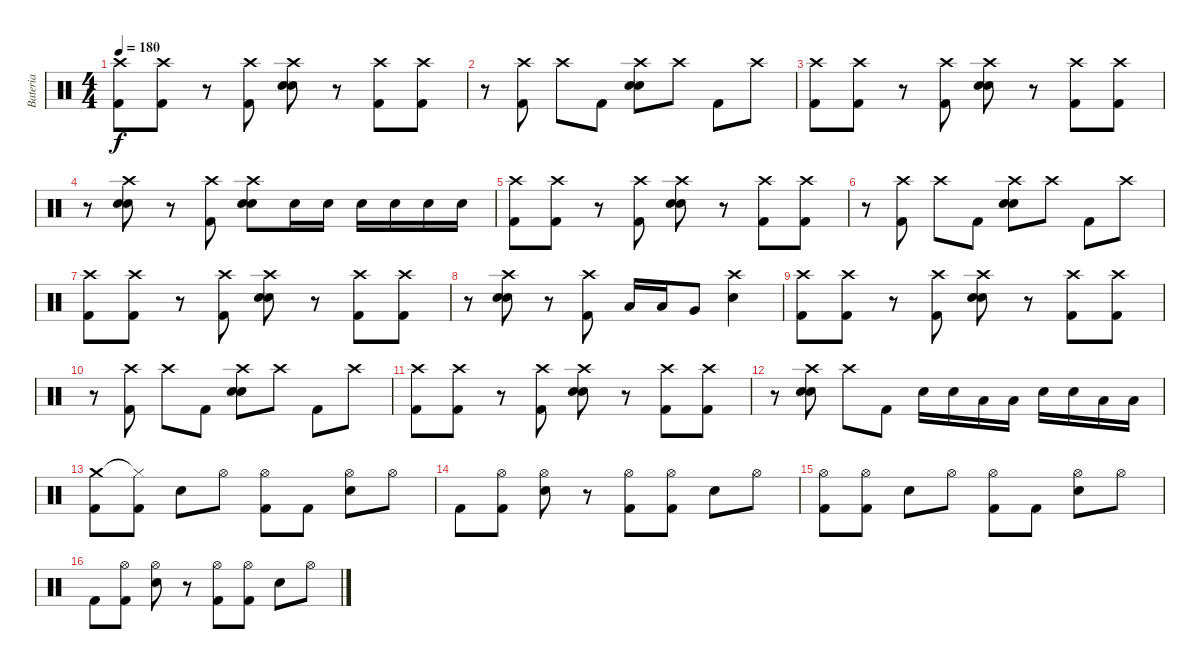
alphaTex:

\track ("Bateria" "Bateria") {instrument percussion}
\staff {score}
\articulation defaults
\ts (4 4)
\tempo 180
\clef neutral
\ks c
("Crash high (hit)" "Kick (hit) 2").8{dy f} ("Crash high (hit)" "Kick (hit) 2").8 r.8 ("Crash high (hit)" "Kick (hit) 2").8 ("Crash high (hit)" "Snare (hit) 2" "Electric Snare (hit)").8 r.8 ("Crash high (hit)" "Kick (hit) 2").8 ("Crash high (hit)" "Kick (hit) 2").8 |
r.8 ("Crash high (hit)" "Kick (hit) 2").8 "Crash high (hit)".8 "Kick (hit) 2".8 ("Crash high (hit)" "Snare (hit) 2" "Electric Snare (hit)").8 "Crash high (hit)".8 "Kick (hit) 2".8 "Crash high (hit)".8 |
("Crash high (hit)" "Kick (hit) 2").8 ("Crash high (hit)" "Kick (hit) 2").8 r.8 ("Crash high (hit)" "Kick (hit) 2").8 ("Crash high (hit)" "Snare (hit) 2" "Electric Snare (hit)").8 r.8 ("Crash high (hit)" "Kick (hit) 2").8 ("Crash high (hit)" "Kick (hit) 2").8 |
r.8 ("Crash high (hit)" "Snare (hit) 2" "Electric Snare (hit)").8 r.8 ("Crash high (hit)" "Kick (hit) 2").8 ("Crash high (hit)" "Snare (hit) 2" "Electric Snare (hit)").8 "Electric Snare (hit)".16 "Electric Snare (hit)".16 "Electric Snare (hit)".16 "Electric Snare (hit)".16 "Electric Snare (hit)".16 "Electric Snare (hit)".16 |
("Crash high (hit)" "Kick (hit) 2").8 ("Crash high (hit)" "Kick (hit) 2").8 r.8 ("Crash high (hit)" "Kick (hit) 2").8 ("Crash high (hit)" "Snare (hit) 2" "Electric Snare (hit)").8 r.8 ("Crash high (hit)" "Kick (hit) 2").8 ("Crash high (hit)" "Kick (hit) 2").8 |
r.8 ("Crash high (hit)" "Kick (hit) 2").8 "Crash high (hit)".8 "Kick (hit) 2".8 ("Crash high (hit)" "Snare (hit) 2" "Electric Snare (hit)").8 "Crash high (hit)".8 "Kick (hit) 2".8 "Crash high (hit)".8 |
("Crash high (hit)" "Kick (hit) 2").8 ("Crash high (hit)" "Kick (hit) 2").8 r.8 ("Crash high (hit)" "Kick (hit) 2").8 ("Crash high (hit)" "Snare (hit) 2" "Electric Snare (hit)").8 r.8 ("Crash high (hit)" "Kick (hit) 2").8 ("Crash high (hit)" "Kick (hit) 2").8 |
r.8 ("Crash high (hit)" "Snare (hit) 2" "Electric Snare (hit)").8 r.8 ("Crash high (hit)" "Kick (hit) 2").8 "Low Tom (hit)".16 "Low Tom (hit)".16 "Very Low Tom (hit)".8 ("Crash high (hit)" "Electric Snare (hit)").4 |
("Crash high (hit)" "Kick (hit) 2").8 ("Crash high (hit)" "Kick (hit) 2").8 r.8 ("Crash high (hit)" "Kick (hit) 2").8 ("Crash high (hit)" "Snare (hit) 2" "Electric Snare (hit)").8 r.8 ("Crash high (hit)" "Kick (hit) 2").8 ("Crash high (hit)" "Kick (hit) 2").8 |
r.8 ("Crash high (hit)" "Kick (hit) 2").8 "Crash high (hit)".8 "Kick (hit) 2".8 ("Crash high (hit)" "Snare (hit) 2" "Electric Snare (hit)").8 "Crash high (hit)".8 "Kick (hit) 2".8 "Crash high (hit)".8 |
("Crash high (hit)" "Kick (hit) 2").8 ("Crash high (hit)" "Kick (hit) 2").8 r.8 ("Crash high (hit)" "Kick (hit) 2").8 ("Crash high (hit)" "Snare (hit) 2" "Electric Snare (hit)").8 r.8 ("Crash high (hit)" "Kick (hit) 2").8 ("Crash high (hit)" "Kick (hit) 2").8 |
r.8 ("Crash high (hit)" "Snare (hit) 2" "Electric Snare (hit)").8 "Crash high (hit)".8 "Kick (hit) 2".8 "Electric Snare (hit)".16 "Electric Snare (hit)".16 "Low Tom (hit)".16 "Low Tom (hit)".16 "Electric Snare (hit)".16 "Electric Snare (hit)".16 "Low Tom (hit)".16 "Low Tom (hit)".16 |
("Crash medium (hit)" "Kick (hit) 2").8 ("Hi-Hat (closed)"{t} "Kick (hit) 2").8 "Electric Snare (hit)".8 "Hi-Hat (open)".8 ("Hi-Hat (open)" "Kick (hit) 2").8 "Kick (hit) 2".8 ("Hi-Hat (open)" "Electric Snare (hit)").8 "Hi-Hat (open)".8 |
"Kick (hit) 2".8 ("Hi-Hat (open)" "Kick (hit) 2").8 ("Hi-Hat (open)" "Electric Snare (hit)").8 r.8 ("Hi-Hat (open)" "Kick (hit) 2").8 ("Hi-Hat (open)" "Kick (hit) 2").8 "Electric Snare (hit)".8 "Hi-Hat (open)".8 |
("Hi-Hat (open)" "Kick (hit) 2").8 ("Hi-Hat (open)" "Kick (hit) 2").8 "Electric Snare (hit)".8 "Hi-Hat (open)".8 ("Hi-Hat (open)" "Kick (hit) 2").8 "Kick (hit) 2".8 ("Hi-Hat (open)" "Electric Snare (hit)").8 "Hi-Hat (open)".8 |
"Kick (hit) 2".8 ("Hi-Hat (open)" "Kick (hit) 2").8 ("Hi-Hat (open)" "Electric Snare (hit)").8 r.8 ("Hi-Hat (open)" "Kick (hit) 2").8 ("Hi-Hat (open)" "Kick (hit) 2").8 "Electric Snare (hit)".8 "Hi-Hat (open)".8
